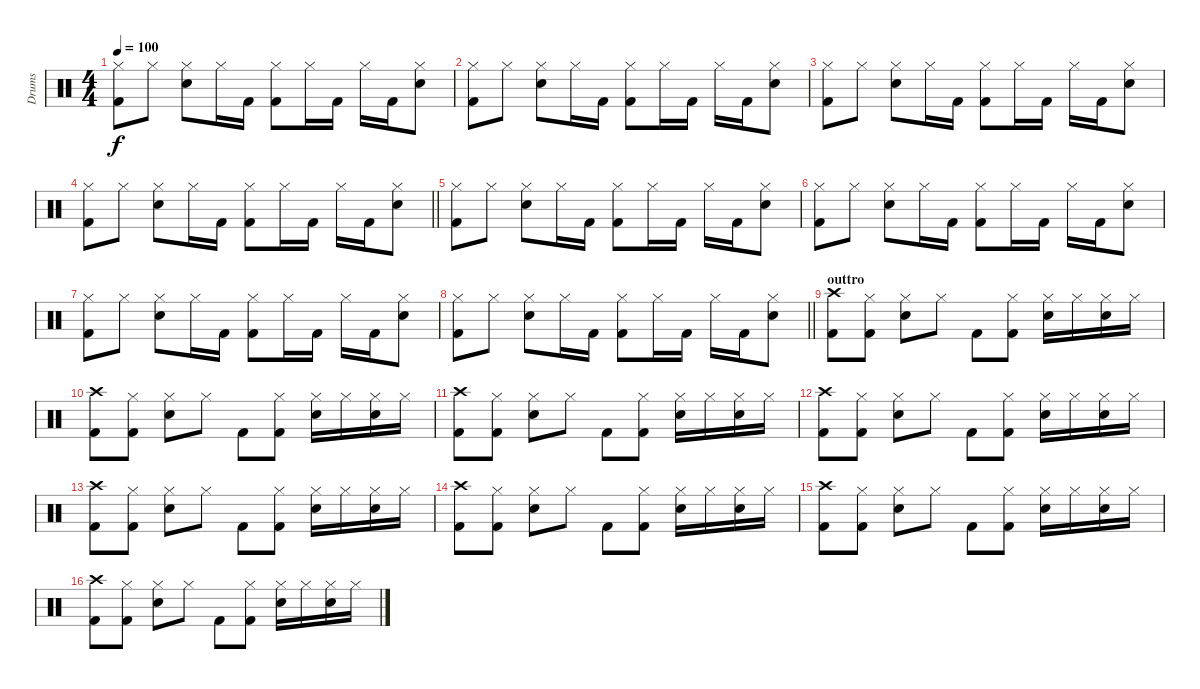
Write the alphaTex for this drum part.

\track ("Drums" "Drums") {instrument percussion}
\staff {score}
\articulation defaults
\ts (4 4)
\tempo 100
\clef neutral
\ks c
("Hi-Hat (closed)" "Kick (hit) 2").8{dy f} "Hi-Hat (closed)".8 ("Hi-Hat (closed)" "Snare (hit) 2").8 "Hi-Hat (closed)".16 "Kick (hit) 2".16 ("Hi-Hat (closed)" "Kick (hit) 2").8 "Hi-Hat (closed)".16 "Kick (hit) 2".16 "Hi-Hat (closed)".16 "Kick (hit) 2".16 ("Hi-Hat (closed)" "Snare (hit) 2").8 |
("Hi-Hat (closed)" "Kick (hit) 2").8 "Hi-Hat (closed)".8 ("Hi-Hat (closed)" "Snare (hit) 2").8 "Hi-Hat (closed)".16 "Kick (hit) 2".16 ("Hi-Hat (closed)" "Kick (hit) 2").8 "Hi-Hat (closed)".16 "Kick (hit) 2".16 "Hi-Hat (closed)".16 "Kick (hit) 2".16 ("Hi-Hat (closed)" "Snare (hit) 2").8 |
("Hi-Hat (closed)" "Kick (hit) 2").8 "Hi-Hat (closed)".8 ("Hi-Hat (closed)" "Snare (hit) 2").8 "Hi-Hat (closed)".16 "Kick (hit) 2".16 ("Hi-Hat (closed)" "Kick (hit) 2").8 "Hi-Hat (closed)".16 "Kick (hit) 2".16 "Hi-Hat (closed)".16 "Kick (hit) 2".16 ("Hi-Hat (closed)" "Snare (hit) 2").8 |
\barLineRight lightlight
("Hi-Hat (closed)" "Kick (hit) 2").8 "Hi-Hat (closed)".8 ("Hi-Hat (closed)" "Snare (hit) 2").8 "Hi-Hat (closed)".16 "Kick (hit) 2".16 ("Hi-Hat (closed)" "Kick (hit) 2").8 "Hi-Hat (closed)".16 "Kick (hit) 2".16 "Hi-Hat (closed)".16 "Kick (hit) 2".16 ("Hi-Hat (closed)" "Snare (hit) 2").8 |
("Hi-Hat (closed)" "Kick (hit) 2").8 "Hi-Hat (closed)".8 ("Hi-Hat (closed)" "Snare (hit) 2").8 "Hi-Hat (closed)".16 "Kick (hit) 2".16 ("Hi-Hat (closed)" "Kick (hit) 2").8 "Hi-Hat (closed)".16 "Kick (hit) 2".16 "Hi-Hat (closed)".16 "Kick (hit) 2".16 ("Hi-Hat (closed)" "Snare (hit) 2").8 |
("Hi-Hat (closed)" "Kick (hit) 2").8 "Hi-Hat (closed)".8 ("Hi-Hat (closed)" "Snare (hit) 2").8 "Hi-Hat (closed)".16 "Kick (hit) 2".16 ("Hi-Hat (closed)" "Kick (hit) 2").8 "Hi-Hat (closed)".16 "Kick (hit) 2".16 "Hi-Hat (closed)".16 "Kick (hit) 2".16 ("Hi-Hat (closed)" "Snare (hit) 2").8 |
("Hi-Hat (closed)" "Kick (hit) 2").8 "Hi-Hat (closed)".8 ("Hi-Hat (closed)" "Snare (hit) 2").8 "Hi-Hat (closed)".16 "Kick (hit) 2".16 ("Hi-Hat (closed)" "Kick (hit) 2").8 "Hi-Hat (closed)".16 "Kick (hit) 2".16 "Hi-Hat (closed)".16 "Kick (hit) 2".16 ("Hi-Hat (closed)" "Snare (hit) 2").8 |
\barLineRight lightlight
("Hi-Hat (closed)" "Kick (hit) 2").8 "Hi-Hat (closed)".8 ("Hi-Hat (closed)" "Snare (hit) 2").8 "Hi-Hat (closed)".16 "Kick (hit) 2".16 ("Hi-Hat (closed)" "Kick (hit) 2").8 "Hi-Hat (closed)".16 "Kick (hit) 2".16 "Hi-Hat (closed)".16 "Kick (hit) 2".16 ("Hi-Hat (closed)" "Snare (hit) 2").8 |
\section ("" "outtro")
("Crash high (hit)" "Kick (hit) 2").8 ("Hi-Hat (closed)" "Kick (hit) 2").8 ("Hi-Hat (closed)" "Snare (hit) 2").8 "Hi-Hat (closed)".8 "Kick (hit) 2".8 ("Hi-Hat (closed)" "Kick (hit) 2").8 ("Hi-Hat (closed)" "Snare (hit) 2").16 "Hi-Hat (closed)".16 ("Hi-Hat (closed)" "Snare (hit) 2").16 "Hi-Hat (closed)".16 |
("Crash high (hit)" "Kick (hit) 2").8 ("Hi-Hat (closed)" "Kick (hit) 2").8 ("Hi-Hat (closed)" "Snare (hit) 2").8 "Hi-Hat (closed)".8 "Kick (hit) 2".8 ("Hi-Hat (closed)" "Kick (hit) 2").8 ("Hi-Hat (closed)" "Snare (hit) 2").16 "Hi-Hat (closed)".16 ("Hi-Hat (closed)" "Snare (hit) 2").16 "Hi-Hat (closed)".16 |
("Crash high (hit)" "Kick (hit) 2").8 ("Hi-Hat (closed)" "Kick (hit) 2").8 ("Hi-Hat (closed)" "Snare (hit) 2").8 "Hi-Hat (closed)".8 "Kick (hit) 2".8 ("Hi-Hat (closed)" "Kick (hit) 2").8 ("Hi-Hat (closed)" "Snare (hit) 2").16 "Hi-Hat (closed)".16 ("Hi-Hat (closed)" "Snare (hit) 2").16 "Hi-Hat (closed)".16 |
("Crash high (hit)" "Kick (hit) 2").8 ("Hi-Hat (closed)" "Kick (hit) 2").8 ("Hi-Hat (closed)" "Snare (hit) 2").8 "Hi-Hat (closed)".8 "Kick (hit) 2".8 ("Hi-Hat (closed)" "Kick (hit) 2").8 ("Hi-Hat (closed)" "Snare (hit) 2").16 "Hi-Hat (closed)".16 ("Hi-Hat (closed)" "Snare (hit) 2").16 "Hi-Hat (closed)".16 |
("Crash high (hit)" "Kick (hit) 2").8 ("Hi-Hat (closed)" "Kick (hit) 2").8 ("Hi-Hat (closed)" "Snare (hit) 2").8 "Hi-Hat (closed)".8 "Kick (hit) 2".8 ("Hi-Hat (closed)" "Kick (hit) 2").8 ("Hi-Hat (closed)" "Snare (hit) 2").16 "Hi-Hat (closed)".16 ("Hi-Hat (closed)" "Snare (hit) 2").16 "Hi-Hat (closed)".16 |
("Crash high (hit)" "Kick (hit) 2").8 ("Hi-Hat (closed)" "Kick (hit) 2").8 ("Hi-Hat (closed)" "Snare (hit) 2").8 "Hi-Hat (closed)".8 "Kick (hit) 2".8 ("Hi-Hat (closed)" "Kick (hit) 2").8 ("Hi-Hat (closed)" "Snare (hit) 2").16 "Hi-Hat (closed)".16 ("Hi-Hat (closed)" "Snare (hit) 2").16 "Hi-Hat (closed)".16 |
("Crash high (hit)" "Kick (hit) 2").8 ("Hi-Hat (closed)" "Kick (hit) 2").8 ("Hi-Hat (closed)" "Snare (hit) 2").8 "Hi-Hat (closed)".8 "Kick (hit) 2".8 ("Hi-Hat (closed)" "Kick (hit) 2").8 ("Hi-Hat (closed)" "Snare (hit) 2").16 "Hi-Hat (closed)".16 ("Hi-Hat (closed)" "Snare (hit) 2").16 "Hi-Hat (closed)".16 |
("Crash high (hit)" "Kick (hit) 2").8 ("Hi-Hat (closed)" "Kick (hit) 2").8 ("Hi-Hat (closed)" "Snare (hit) 2").8 "Hi-Hat (closed)".8 "Kick (hit) 2".8 ("Hi-Hat (closed)" "Kick (hit) 2").8 ("Hi-Hat (closed)" "Snare (hit) 2").16 "Hi-Hat (closed)".16 ("Hi-Hat (closed)" "Snare (hit) 2").16 "Hi-Hat (closed)".16
